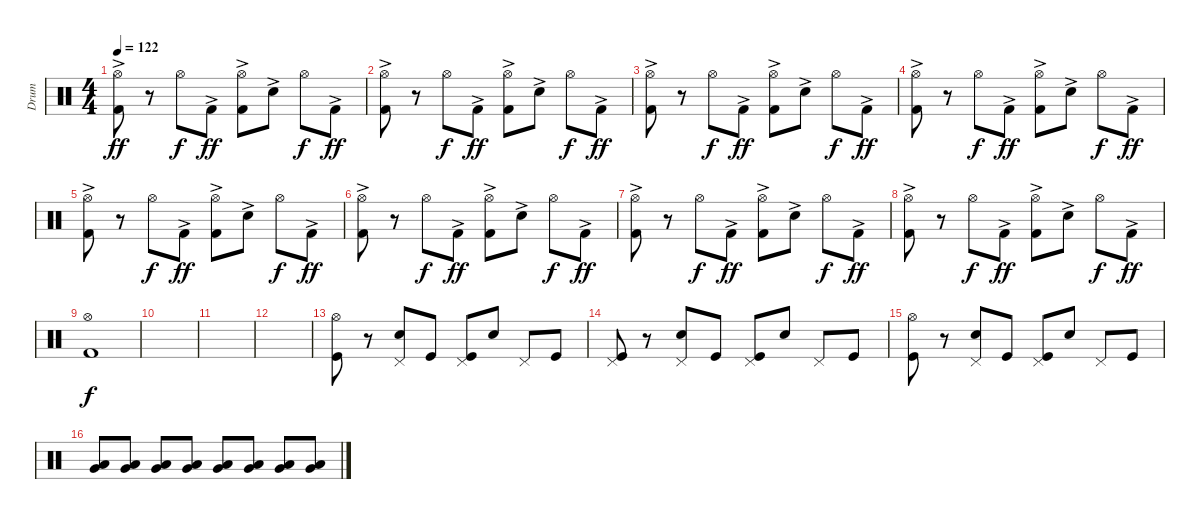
\track ("Drum" "Drum") {instrument percussion}
\staff {score}
\articulation defaults
\ts (4 4)
\tempo 122
\clef neutral
\ks c
("Hi-Hat (open)" "Kick (hit) 2"{ac}).8{dy ff} r.8 "Hi-Hat (open)".8{dy f} "Kick (hit) 2"{ac}.8{dy ff} ("Hi-Hat (open)" "Kick (hit) 2"{ac}).8 "Electric Snare (hit)"{ac}.8 "Hi-Hat (open)".8{dy f} "Kick (hit) 2"{ac}.8{dy ff} |
("Hi-Hat (open)" "Kick (hit) 2"{ac}).8 r.8 "Hi-Hat (open)".8{dy f} "Kick (hit) 2"{ac}.8{dy ff} ("Hi-Hat (open)" "Kick (hit) 2"{ac}).8 "Electric Snare (hit)"{ac}.8 "Hi-Hat (open)".8{dy f} "Kick (hit) 2"{ac}.8{dy ff} |
("Hi-Hat (open)" "Kick (hit) 2"{ac}).8 r.8 "Hi-Hat (open)".8{dy f} "Kick (hit) 2"{ac}.8{dy ff} ("Hi-Hat (open)" "Kick (hit) 2"{ac}).8 "Electric Snare (hit)"{ac}.8 "Hi-Hat (open)".8{dy f} "Kick (hit) 2"{ac}.8{dy ff} |
("Hi-Hat (open)" "Kick (hit) 2"{ac}).8 r.8 "Hi-Hat (open)".8{dy f} "Kick (hit) 2"{ac}.8{dy ff} ("Hi-Hat (open)" "Kick (hit) 2"{ac}).8 "Electric Snare (hit)"{ac}.8 "Hi-Hat (open)".8{dy f} "Kick (hit) 2"{ac}.8{dy ff} |
("Hi-Hat (open)" "Kick (hit) 2"{ac}).8 r.8 "Hi-Hat (open)".8{dy f} "Kick (hit) 2"{ac}.8{dy ff} ("Hi-Hat (open)" "Kick (hit) 2"{ac}).8 "Electric Snare (hit)"{ac}.8 "Hi-Hat (open)".8{dy f} "Kick (hit) 2"{ac}.8{dy ff} |
("Hi-Hat (open)" "Kick (hit) 2"{ac}).8 r.8 "Hi-Hat (open)".8{dy f} "Kick (hit) 2"{ac}.8{dy ff} ("Hi-Hat (open)" "Kick (hit) 2"{ac}).8 "Electric Snare (hit)"{ac}.8 "Hi-Hat (open)".8{dy f} "Kick (hit) 2"{ac}.8{dy ff} |
("Hi-Hat (open)" "Kick (hit) 2"{ac}).8 r.8 "Hi-Hat (open)".8{dy f} "Kick (hit) 2"{ac}.8{dy ff} ("Hi-Hat (open)" "Kick (hit) 2"{ac}).8 "Electric Snare (hit)"{ac}.8 "Hi-Hat (open)".8{dy f} "Kick (hit) 2"{ac}.8{dy ff} |
("Hi-Hat (open)" "Kick (hit) 2"{ac}).8 r.8 "Hi-Hat (open)".8{dy f} "Kick (hit) 2"{ac}.8{dy ff} ("Hi-Hat (open)" "Kick (hit) 2"{ac}).8 "Electric Snare (hit)"{ac}.8 "Hi-Hat (open)".8{dy f} "Kick (hit) 2"{ac}.8{dy ff} |
("Hi-Hat (open)" "Kick (hit) 2").1{dy f} |
|
|
|
("Hi-Hat (open)" "Kick (hit)").8{volume 10} r.8 ("Pedal Hi-Hat (hit)" "Electric Snare (hit)").8 "Kick (hit)".8 ("Pedal Hi-Hat (hit)" "Kick (hit)").8 "Electric Snare (hit)".8 "Pedal Hi-Hat (hit)".8 "Kick (hit)".8 |
("Pedal Hi-Hat (hit)" "Kick (hit)").8 r.8 ("Pedal Hi-Hat (hit)" "Electric Snare (hit)").8 "Kick (hit)".8 ("Pedal Hi-Hat (hit)" "Kick (hit)").8 "Electric Snare (hit)".8 "Pedal Hi-Hat (hit)".8 "Kick (hit)".8 |
("Hi-Hat (open)" "Kick (hit)").8 r.8 ("Pedal Hi-Hat (hit)" "Electric Snare (hit)").8 "Kick (hit)".8 ("Pedal Hi-Hat (hit)" "Kick (hit)").8 "Electric Snare (hit)".8 "Pedal Hi-Hat (hit)".8 "Kick (hit)".8 |
("Low Tom (hit)" "Very Low Tom (hit)").8{volume 13} ("Low Tom (hit)" "Very Low Tom (hit)").8 ("Low Tom (hit)" "Very Low Tom (hit)").8 ("Low Tom (hit)" "Very Low Tom (hit)").8 ("Low Tom (hit)" "Very Low Tom (hit)").8 ("Low Tom (hit)" "Very Low Tom (hit)").8 ("Low Tom (hit)" "Very Low Tom (hit)").8 ("Low Tom (hit)" "Very Low Tom (hit)").8
